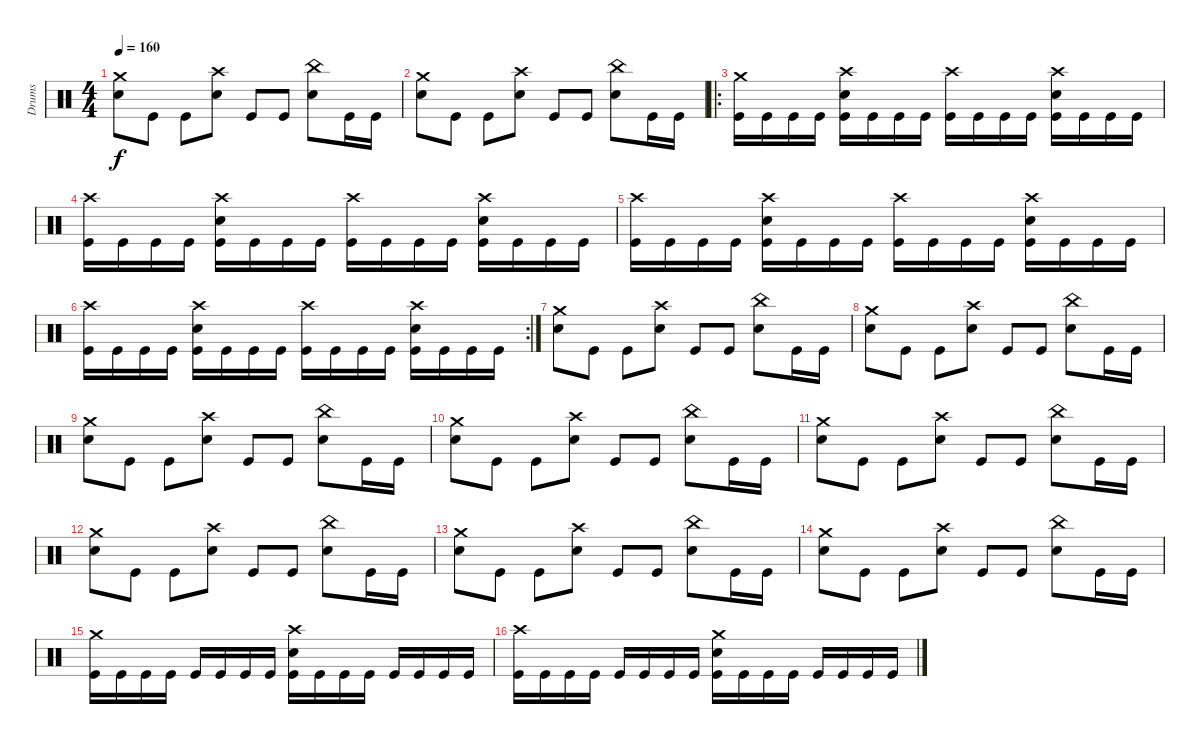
\track ("Drums" "Drums") {instrument percussion}
\staff {score}
\articulation defaults
\ts (4 4)
\tempo 160
\clef neutral
\ks c
("Crash medium (hit)" "Electric Snare (hit)").8{dy f} "Kick (hit)".8 "Kick (hit)".8 ("Crash high (hit)" "Electric Snare (hit)").8 "Kick (hit)".8 "Kick (hit)".8 ("China (hit)" "Electric Snare (hit)").8 "Kick (hit)".16 "Kick (hit)".16 |
("Crash medium (hit)" "Electric Snare (hit)").8 "Kick (hit)".8 "Kick (hit)".8 ("Crash high (hit)" "Electric Snare (hit)").8 "Kick (hit)".8 "Kick (hit)".8 ("China (hit)" "Electric Snare (hit)").8 "Kick (hit)".16 "Kick (hit)".16 |
\ro
("Crash medium (hit)" "Kick (hit)").16 "Kick (hit)".16 "Kick (hit)".16 "Kick (hit)".16 ("Crash high (hit)" "Electric Snare (hit)" "Kick (hit)").16 "Kick (hit)".16 "Kick (hit)".16 "Kick (hit)".16 ("Crash high (hit)" "Kick (hit)").16 "Kick (hit)".16 "Kick (hit)".16 "Kick (hit)".16 ("Crash high (hit)" "Electric Snare (hit)" "Kick (hit)").16 "Kick (hit)".16 "Kick (hit)".16 "Kick (hit)".16 |
("Crash high (hit)" "Kick (hit)").16 "Kick (hit)".16 "Kick (hit)".16 "Kick (hit)".16 ("Crash high (hit)" "Electric Snare (hit)" "Kick (hit)").16 "Kick (hit)".16 "Kick (hit)".16 "Kick (hit)".16 ("Crash high (hit)" "Kick (hit)").16 "Kick (hit)".16 "Kick (hit)".16 "Kick (hit)".16 ("Crash high (hit)" "Electric Snare (hit)" "Kick (hit)").16 "Kick (hit)".16 "Kick (hit)".16 "Kick (hit)".16 |
("Crash high (hit)" "Kick (hit)").16 "Kick (hit)".16 "Kick (hit)".16 "Kick (hit)".16 ("Crash high (hit)" "Electric Snare (hit)" "Kick (hit)").16 "Kick (hit)".16 "Kick (hit)".16 "Kick (hit)".16 ("Crash high (hit)" "Kick (hit)").16 "Kick (hit)".16 "Kick (hit)".16 "Kick (hit)".16 ("Crash high (hit)" "Electric Snare (hit)" "Kick (hit)").16 "Kick (hit)".16 "Kick (hit)".16 "Kick (hit)".16 |
\rc 2
("Crash high (hit)" "Kick (hit)").16 "Kick (hit)".16 "Kick (hit)".16 "Kick (hit)".16 ("Crash high (hit)" "Electric Snare (hit)" "Kick (hit)").16 "Kick (hit)".16 "Kick (hit)".16 "Kick (hit)".16 ("Crash high (hit)" "Kick (hit)").16 "Kick (hit)".16 "Kick (hit)".16 "Kick (hit)".16 ("Crash high (hit)" "Electric Snare (hit)" "Kick (hit)").16 "Kick (hit)".16 "Kick (hit)".16 "Kick (hit)".16 |
("Crash medium (hit)" "Electric Snare (hit)").8 "Kick (hit)".8 "Kick (hit)".8 ("Crash high (hit)" "Electric Snare (hit)").8 "Kick (hit)".8 "Kick (hit)".8 ("China (hit)" "Electric Snare (hit)").8 "Kick (hit)".16 "Kick (hit)".16 |
("Crash medium (hit)" "Electric Snare (hit)").8 "Kick (hit)".8 "Kick (hit)".8 ("Crash high (hit)" "Electric Snare (hit)").8 "Kick (hit)".8 "Kick (hit)".8 ("China (hit)" "Electric Snare (hit)").8 "Kick (hit)".16 "Kick (hit)".16 |
("Crash medium (hit)" "Electric Snare (hit)").8 "Kick (hit)".8 "Kick (hit)".8 ("Crash high (hit)" "Electric Snare (hit)").8 "Kick (hit)".8 "Kick (hit)".8 ("China (hit)" "Electric Snare (hit)").8 "Kick (hit)".16 "Kick (hit)".16 |
("Crash medium (hit)" "Electric Snare (hit)").8 "Kick (hit)".8 "Kick (hit)".8 ("Crash high (hit)" "Electric Snare (hit)").8 "Kick (hit)".8 "Kick (hit)".8 ("China (hit)" "Electric Snare (hit)").8 "Kick (hit)".16 "Kick (hit)".16 |
("Crash medium (hit)" "Electric Snare (hit)").8 "Kick (hit)".8 "Kick (hit)".8 ("Crash high (hit)" "Electric Snare (hit)").8 "Kick (hit)".8 "Kick (hit)".8 ("China (hit)" "Electric Snare (hit)").8 "Kick (hit)".16 "Kick (hit)".16 |
("Crash medium (hit)" "Electric Snare (hit)").8 "Kick (hit)".8 "Kick (hit)".8 ("Crash high (hit)" "Electric Snare (hit)").8 "Kick (hit)".8 "Kick (hit)".8 ("China (hit)" "Electric Snare (hit)").8 "Kick (hit)".16 "Kick (hit)".16 |
("Crash medium (hit)" "Electric Snare (hit)").8 "Kick (hit)".8 "Kick (hit)".8 ("Crash high (hit)" "Electric Snare (hit)").8 "Kick (hit)".8 "Kick (hit)".8 ("China (hit)" "Electric Snare (hit)").8 "Kick (hit)".16 "Kick (hit)".16 |
("Crash medium (hit)" "Electric Snare (hit)").8 "Kick (hit)".8 "Kick (hit)".8 ("Crash high (hit)" "Electric Snare (hit)").8 "Kick (hit)".8 "Kick (hit)".8 ("China (hit)" "Electric Snare (hit)").8 "Kick (hit)".16 "Kick (hit)".16 |
("Crash medium (hit)" "Kick (hit)").16 "Kick (hit)".16 "Kick (hit)".16 "Kick (hit)".16 "Kick (hit)".16 "Kick (hit)".16 "Kick (hit)".16 "Kick (hit)".16 ("Crash high (hit)" "Electric Snare (hit)" "Kick (hit)").16 "Kick (hit)".16 "Kick (hit)".16 "Kick (hit)".16 "Kick (hit)".16 "Kick (hit)".16 "Kick (hit)".16 "Kick (hit)".16 |
("Crash high (hit)" "Kick (hit)").16 "Kick (hit)".16 "Kick (hit)".16 "Kick (hit)".16 "Kick (hit)".16 "Kick (hit)".16 "Kick (hit)".16 "Kick (hit)".16 ("Crash medium (hit)" "Electric Snare (hit)" "Kick (hit)").16 "Kick (hit)".16 "Kick (hit)".16 "Kick (hit)".16 "Kick (hit)".16 "Kick (hit)".16 "Kick (hit)".16 "Kick (hit)".16
